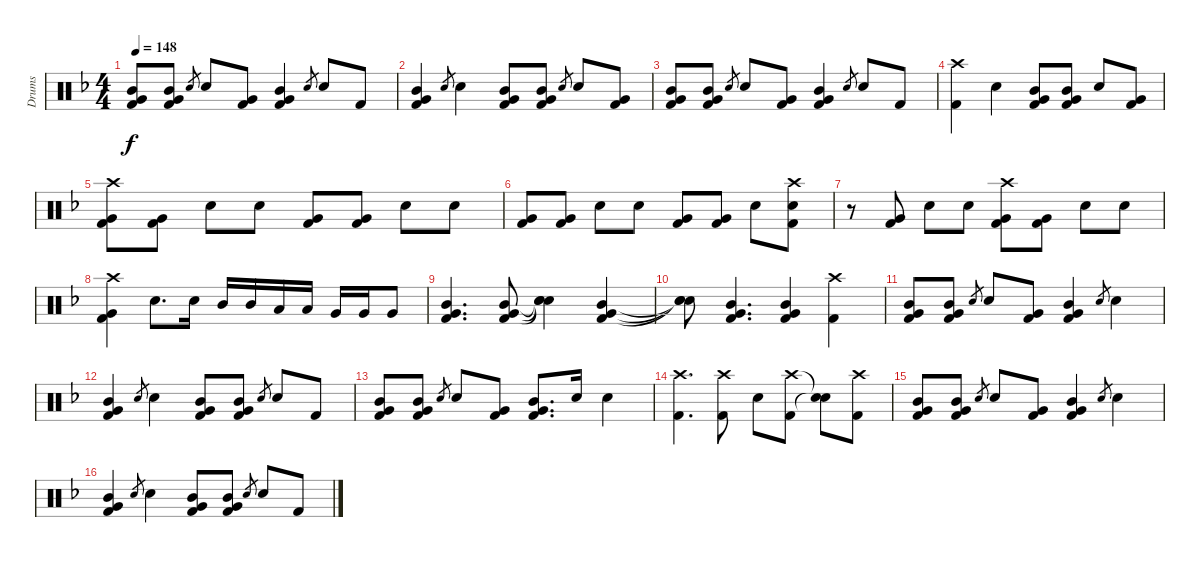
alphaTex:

\track ("Drums" "Drums") {instrument percussion}
\staff {score}
\articulation defaults
\ts (4 4)
\tempo 148
\clef neutral
\ks f
("Mid Tom (hit)" "Very Low Tom (hit)" "Kick (hit) 2").8{dy f} ("Mid Tom (hit)" "Very Low Tom (hit)" "Kick (hit) 2").8 "Snare (hit) 2".8{gr} "Snare (hit) 2".8 ("Very Low Tom (hit)" "Kick (hit) 2").8 ("Mid Tom (hit)" "Very Low Tom (hit)" "Kick (hit) 2").4 "Snare (hit) 2".8{gr} "Snare (hit) 2".8 "Kick (hit) 2".8 |
("Mid Tom (hit)" "Very Low Tom (hit)" "Kick (hit) 2").4 "Snare (hit) 2".8{gr} "Snare (hit) 2".4 ("Mid Tom (hit)" "Very Low Tom (hit)" "Kick (hit) 2").8 ("Mid Tom (hit)" "Very Low Tom (hit)" "Kick (hit) 2").8 "Snare (hit) 2".8{gr} "Snare (hit) 2".8 ("Very Low Tom (hit)" "Kick (hit) 2").8 |
("Mid Tom (hit)" "Very Low Tom (hit)" "Kick (hit) 2").8 ("Mid Tom (hit)" "Very Low Tom (hit)" "Kick (hit) 2").8 "Snare (hit) 2".8{gr} "Snare (hit) 2".8 ("Very Low Tom (hit)" "Kick (hit) 2").8 ("Mid Tom (hit)" "Very Low Tom (hit)" "Kick (hit) 2").4 "Snare (hit) 2".8{gr} "Snare (hit) 2".8 "Kick (hit) 2".8 |
("Crash high (hit)" "Kick (hit) 2").4 "Snare (hit) 2".4 ("Mid Tom (hit)" "Very Low Tom (hit)" "Kick (hit) 2").8 ("Mid Tom (hit)" "Very Low Tom (hit)" "Kick (hit) 2").8 "Snare (hit) 2".8 ("Very Low Tom (hit)" "Kick (hit) 2").8 |
("Crash high (hit)" "Very Low Tom (hit)" "Kick (hit) 2").8 ("Very Low Tom (hit)" "Kick (hit) 2").8 "Snare (hit) 2".8 "Snare (hit) 2".8 ("Very Low Tom (hit)" "Kick (hit) 2").8 ("Very Low Tom (hit)" "Kick (hit) 2").8 "Snare (hit) 2".8 "Snare (hit) 2".8 |
("Very Low Tom (hit)" "Kick (hit) 2").8 ("Very Low Tom (hit)" "Kick (hit) 2").8 "Snare (hit) 2".8 "Snare (hit) 2".8 ("Very Low Tom (hit)" "Kick (hit) 2").8 ("Very Low Tom (hit)" "Kick (hit) 2").8 "Snare (hit) 2".8 ("Crash high (hit)" "Snare (hit) 2" "Kick (hit) 2").8 |
r.8 ("Very Low Tom (hit)" "Kick (hit) 2").8 "Snare (hit) 2".8 "Snare (hit) 2".8 ("Crash high (hit)" "Very Low Tom (hit)" "Kick (hit) 2").8 ("Very Low Tom (hit)" "Kick (hit) 2").8 "Snare (hit) 2".8 "Snare (hit) 2".8 |
("Crash high (hit)" "Very Low Tom (hit)" "Kick (hit) 2").4 "Snare (hit) 2".8{d} "Snare (hit) 2".16 "Mid Tom (hit)".16 "Mid Tom (hit)".16 "Low Tom (hit)".16 "Low Tom (hit)".16 "Very Low Tom (hit)".16 "Very Low Tom (hit)".16 "Very Low Tom (hit)".8 |
("Mid Tom (hit)" "Very Low Tom (hit)" "Kick (hit) 2").4{d} ("Mid Tom (hit)" "Very Low Tom (hit)" "Kick (hit) 2").8 ("Snare (hit)"{t} "Snare (hit)"{t} "Snare (hit)"{t}).4 ("Mid Tom (hit)" "Very Low Tom (hit)" "Kick (hit) 2").4 |
("Snare (hit)"{t} "Snare (hit)"{t} "Snare (hit)"{t}).8 ("Mid Tom (hit)" "Very Low Tom (hit)" "Kick (hit) 2").4{d} ("Mid Tom (hit)" "Very Low Tom (hit)" "Kick (hit) 2").4 ("Crash high (hit)" "Kick (hit) 2").4 |
("Mid Tom (hit)" "Very Low Tom (hit)" "Kick (hit) 2").8 ("Mid Tom (hit)" "Very Low Tom (hit)" "Kick (hit) 2").8 "Snare (hit) 2".8{gr} "Snare (hit) 2".8 ("Very Low Tom (hit)" "Kick (hit) 2").8 ("Mid Tom (hit)" "Very Low Tom (hit)" "Kick (hit) 2").4 "Snare (hit) 2".8{gr} "Snare (hit) 2".4 |
("Mid Tom (hit)" "Very Low Tom (hit)" "Kick (hit) 2").4 "Snare (hit) 2".8{gr} "Snare (hit) 2".4 ("Mid Tom (hit)" "Very Low Tom (hit)" "Kick (hit) 2").8 ("Mid Tom (hit)" "Very Low Tom (hit)" "Kick (hit) 2").8 "Snare (hit) 2".8{gr} "Snare (hit) 2".8 "Kick (hit) 2".8 |
("Mid Tom (hit)" "Very Low Tom (hit)" "Kick (hit) 2").8 ("Mid Tom (hit)" "Very Low Tom (hit)" "Kick (hit) 2").8 "Snare (hit) 2".8{gr} "Snare (hit) 2".8 ("Very Low Tom (hit)" "Kick (hit) 2").8 ("Mid Tom (hit)" "Very Low Tom (hit)" "Kick (hit) 2").8{d} "Snare (hit) 2".16 "Snare (hit) 2".4 |
("Crash high (hit)" "Kick (hit) 2").4{d} ("Crash high (hit)" "Kick (hit) 2").8 "Snare (hit) 2".8 ("Crash high (hit)" "Kick (hit) 2").8 ("Snare (hit)"{t} "Snare (hit)"{t}).8 ("Crash high (hit)" "Kick (hit) 2").8 |
("Mid Tom (hit)" "Very Low Tom (hit)" "Kick (hit) 2").8 ("Mid Tom (hit)" "Very Low Tom (hit)" "Kick (hit) 2").8 "Snare (hit) 2".8{gr} "Snare (hit) 2".8 ("Very Low Tom (hit)" "Kick (hit) 2").8 ("Mid Tom (hit)" "Very Low Tom (hit)" "Kick (hit) 2").4 "Snare (hit) 2".8{gr} "Snare (hit) 2".4 |
("Mid Tom (hit)" "Very Low Tom (hit)" "Kick (hit) 2").4 "Snare (hit) 2".8{gr} "Snare (hit) 2".4 ("Mid Tom (hit)" "Very Low Tom (hit)" "Kick (hit) 2").8 ("Mid Tom (hit)" "Very Low Tom (hit)" "Kick (hit) 2").8 "Snare (hit) 2".8{gr} "Snare (hit) 2".8 "Kick (hit) 2".8
